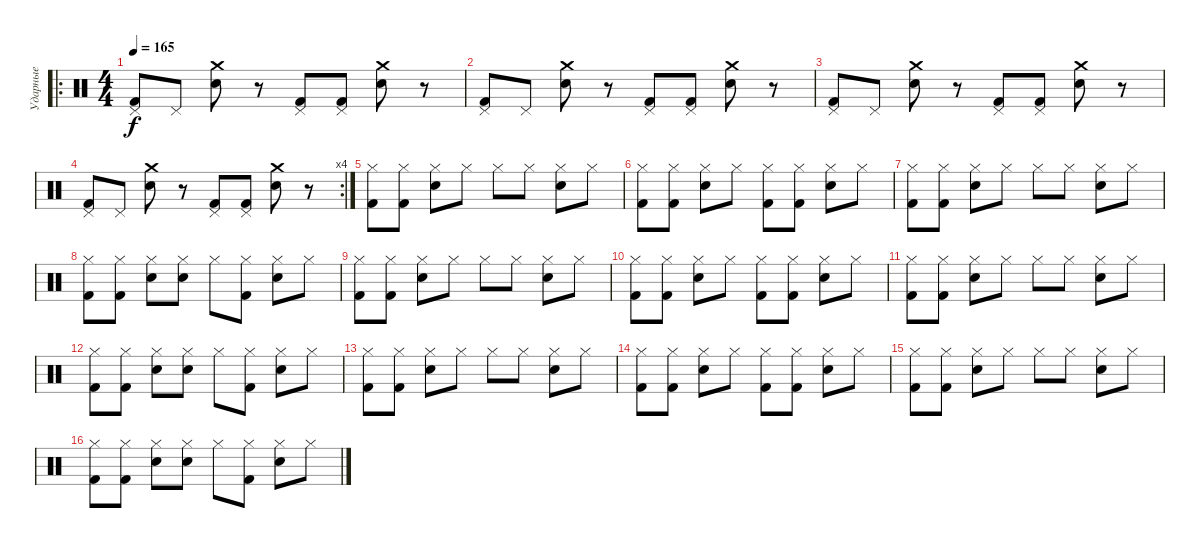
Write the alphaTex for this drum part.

\track ("Ударные" "Ударные") {instrument percussion}
\staff {score}
\articulation defaults
\ro
\ts (4 4)
\tempo 165
\clef neutral
\ks c
("Kick (hit) 2" "Pedal Hi-Hat (hit)").8{dy f} "Pedal Hi-Hat (hit)".8 ("Electric Snare (hit)" "Crash medium (hit)").8 r.8 ("Kick (hit) 2" "Pedal Hi-Hat (hit)").8 ("Kick (hit) 2" "Pedal Hi-Hat (hit)").8 ("Electric Snare (hit)" "Crash medium (hit)").8 r.8 |
("Kick (hit) 2" "Pedal Hi-Hat (hit)").8 "Pedal Hi-Hat (hit)".8 ("Electric Snare (hit)" "Crash medium (hit)").8 r.8 ("Kick (hit) 2" "Pedal Hi-Hat (hit)").8 ("Kick (hit) 2" "Pedal Hi-Hat (hit)").8 ("Electric Snare (hit)" "Crash medium (hit)").8 r.8 |
("Kick (hit) 2" "Pedal Hi-Hat (hit)").8 "Pedal Hi-Hat (hit)".8 ("Electric Snare (hit)" "Crash medium (hit)").8 r.8 ("Kick (hit) 2" "Pedal Hi-Hat (hit)").8 ("Kick (hit) 2" "Pedal Hi-Hat (hit)").8 ("Electric Snare (hit)" "Crash medium (hit)").8 r.8 |
\rc 4
("Kick (hit) 2" "Pedal Hi-Hat (hit)").8 "Pedal Hi-Hat (hit)".8 ("Electric Snare (hit)" "Crash medium (hit)").8 r.8 ("Kick (hit) 2" "Pedal Hi-Hat (hit)").8 ("Kick (hit) 2" "Pedal Hi-Hat (hit)").8 ("Electric Snare (hit)" "Crash medium (hit)").8 r.8 |
("Kick (hit) 2" "Hi-Hat (closed)").8 ("Kick (hit) 2" "Hi-Hat (closed)").8 ("Electric Snare (hit)" "Hi-Hat (closed)").8 "Hi-Hat (closed)".8 "Hi-Hat (closed)".8 "Hi-Hat (closed)".8 ("Electric Snare (hit)" "Hi-Hat (closed)").8 "Hi-Hat (closed)".8 |
("Kick (hit) 2" "Hi-Hat (closed)").8 ("Kick (hit) 2" "Hi-Hat (closed)").8 ("Electric Snare (hit)" "Hi-Hat (closed)").8 "Hi-Hat (closed)".8 ("Kick (hit) 2" "Hi-Hat (closed)").8 ("Kick (hit) 2" "Hi-Hat (closed)").8 ("Electric Snare (hit)" "Hi-Hat (closed)").8 "Hi-Hat (closed)".8 |
("Kick (hit) 2" "Hi-Hat (closed)").8 ("Kick (hit) 2" "Hi-Hat (closed)").8 ("Electric Snare (hit)" "Hi-Hat (closed)").8 "Hi-Hat (closed)".8 "Hi-Hat (closed)".8 "Hi-Hat (closed)".8 ("Electric Snare (hit)" "Hi-Hat (closed)").8 "Hi-Hat (closed)".8 |
("Kick (hit) 2" "Hi-Hat (closed)").8 ("Kick (hit) 2" "Hi-Hat (closed)").8 ("Electric Snare (hit)" "Hi-Hat (closed)").8 ("Electric Snare (hit)" "Hi-Hat (closed)").8 "Hi-Hat (closed)".8 ("Kick (hit) 2" "Hi-Hat (closed)").8 ("Electric Snare (hit)" "Hi-Hat (closed)").8 "Hi-Hat (closed)".8 |
("Kick (hit) 2" "Hi-Hat (closed)").8 ("Kick (hit) 2" "Hi-Hat (closed)").8 ("Electric Snare (hit)" "Hi-Hat (closed)").8 "Hi-Hat (closed)".8 "Hi-Hat (closed)".8 "Hi-Hat (closed)".8 ("Electric Snare (hit)" "Hi-Hat (closed)").8 "Hi-Hat (closed)".8 |
("Kick (hit) 2" "Hi-Hat (closed)").8 ("Kick (hit) 2" "Hi-Hat (closed)").8 ("Electric Snare (hit)" "Hi-Hat (closed)").8 "Hi-Hat (closed)".8 ("Kick (hit) 2" "Hi-Hat (closed)").8 ("Kick (hit) 2" "Hi-Hat (closed)").8 ("Electric Snare (hit)" "Hi-Hat (closed)").8 "Hi-Hat (closed)".8 |
("Kick (hit) 2" "Hi-Hat (closed)").8 ("Kick (hit) 2" "Hi-Hat (closed)").8 ("Electric Snare (hit)" "Hi-Hat (closed)").8 "Hi-Hat (closed)".8 "Hi-Hat (closed)".8 "Hi-Hat (closed)".8 ("Electric Snare (hit)" "Hi-Hat (closed)").8 "Hi-Hat (closed)".8 |
("Kick (hit) 2" "Hi-Hat (closed)").8 ("Kick (hit) 2" "Hi-Hat (closed)").8 ("Electric Snare (hit)" "Hi-Hat (closed)").8 ("Electric Snare (hit)" "Hi-Hat (closed)").8 "Hi-Hat (closed)".8 ("Kick (hit) 2" "Hi-Hat (closed)").8 ("Electric Snare (hit)" "Hi-Hat (closed)").8 "Hi-Hat (closed)".8 |
("Kick (hit) 2" "Hi-Hat (closed)").8 ("Kick (hit) 2" "Hi-Hat (closed)").8 ("Electric Snare (hit)" "Hi-Hat (closed)").8 "Hi-Hat (closed)".8 "Hi-Hat (closed)".8 "Hi-Hat (closed)".8 ("Electric Snare (hit)" "Hi-Hat (closed)").8 "Hi-Hat (closed)".8 |
("Kick (hit) 2" "Hi-Hat (closed)").8 ("Kick (hit) 2" "Hi-Hat (closed)").8 ("Electric Snare (hit)" "Hi-Hat (closed)").8 "Hi-Hat (closed)".8 ("Kick (hit) 2" "Hi-Hat (closed)").8 ("Kick (hit) 2" "Hi-Hat (closed)").8 ("Electric Snare (hit)" "Hi-Hat (closed)").8 "Hi-Hat (closed)".8 |
("Kick (hit) 2" "Hi-Hat (closed)").8 ("Kick (hit) 2" "Hi-Hat (closed)").8 ("Electric Snare (hit)" "Hi-Hat (closed)").8 "Hi-Hat (closed)".8 "Hi-Hat (closed)".8 "Hi-Hat (closed)".8 ("Electric Snare (hit)" "Hi-Hat (closed)").8 "Hi-Hat (closed)".8 |
("Kick (hit) 2" "Hi-Hat (closed)").8 ("Kick (hit) 2" "Hi-Hat (closed)").8 ("Electric Snare (hit)" "Hi-Hat (closed)").8 ("Electric Snare (hit)" "Hi-Hat (closed)").8 "Hi-Hat (closed)".8 ("Kick (hit) 2" "Hi-Hat (closed)").8 ("Electric Snare (hit)" "Hi-Hat (closed)").8 "Hi-Hat (closed)".8
